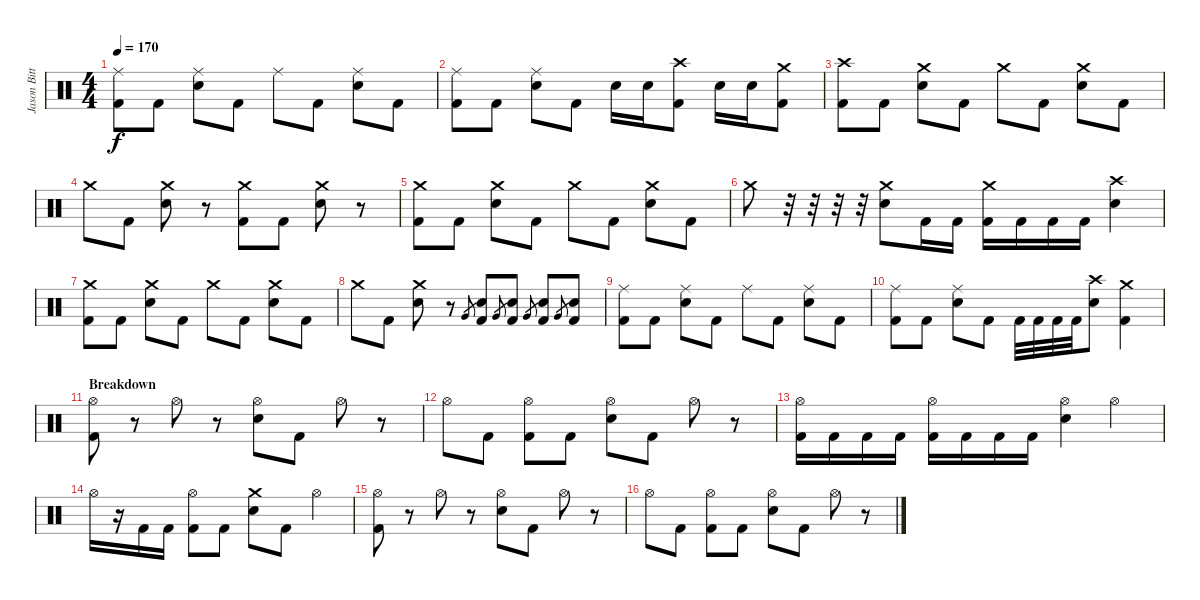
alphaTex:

\track ("Jason Bittner" "Jason Bitt") {instrument percussion}
\staff {score}
\articulation defaults
\ts (4 4)
\tempo 170
\clef neutral
\ks c
("Ride (middle)" "Kick (hit) 2").8{dy f} "Kick (hit) 2".8 ("Ride (middle)" "Electric Snare (hit)").8 "Kick (hit) 2".8 "Ride (middle)".8 "Kick (hit) 2".8 ("Ride (middle)" "Electric Snare (hit)").8 "Kick (hit) 2".8 |
("Ride (middle)" "Kick (hit) 2").8 "Kick (hit) 2".8 ("Ride (middle)" "Electric Snare (hit)").8 "Kick (hit) 2".8 "Electric Snare (hit)".16 "Electric Snare (hit)".16 ("Crash high (hit)" "Kick (hit) 2").8 "Electric Snare (hit)".16 "Electric Snare (hit)".16 ("Crash medium (hit)" "Kick (hit) 2").8 |
("Crash high (hit)" "Kick (hit) 2").8 "Kick (hit) 2".8 ("Crash medium (hit)" "Electric Snare (hit)").8 "Kick (hit) 2".8 "Crash medium (hit)".8 "Kick (hit) 2".8 ("Crash medium (hit)" "Electric Snare (hit)").8 "Kick (hit) 2".8 |
"Crash medium (hit)".8 "Kick (hit) 2".8 ("Crash medium (hit)" "Electric Snare (hit)").8 r.8 ("Crash medium (hit)" "Kick (hit) 2").8 "Kick (hit) 2".8 ("Crash medium (hit)" "Electric Snare (hit)").8 r.8 |
("Crash medium (hit)" "Kick (hit) 2").8 "Kick (hit) 2".8 ("Crash medium (hit)" "Electric Snare (hit)").8 "Kick (hit) 2".8 "Crash medium (hit)".8 "Kick (hit) 2".8 ("Crash medium (hit)" "Electric Snare (hit)").8 "Kick (hit) 2".8 |
"Crash medium (hit)".8 r.32 r.32 r.32 r.32 ("Crash medium (hit)" "Electric Snare (hit)").8 "Kick (hit) 2".16 "Kick (hit) 2".16 ("Crash medium (hit)" "Kick (hit) 2").16 "Kick (hit) 2".16 "Kick (hit) 2".16 "Kick (hit) 2".16 ("Crash high (hit)" "Electric Snare (hit)").4 |
("Crash medium (hit)" "Kick (hit) 2").8 "Kick (hit) 2".8 ("Crash medium (hit)" "Electric Snare (hit)").8 "Kick (hit) 2".8 "Crash medium (hit)".8 "Kick (hit) 2".8 ("Crash medium (hit)" "Electric Snare (hit)").8 "Kick (hit) 2".8 |
"Crash medium (hit)".8 "Kick (hit) 2".8 ("Crash medium (hit)" "Electric Snare (hit)").8 r.8 "Very Low Tom (hit)".8{gr} ("Kick (hit) 2" "Electric Snare (hit)").8 "Very Low Tom (hit)".8{gr} ("Kick (hit) 2" "Electric Snare (hit)").8 "Very Low Tom (hit)".8{gr} ("Kick (hit) 2" "Electric Snare (hit)").8 "Very Low Tom (hit)".8{gr} ("Kick (hit) 2" "Electric Snare (hit)").8 |
("Ride (middle)" "Kick (hit) 2").8 "Kick (hit) 2".8 ("Ride (middle)" "Electric Snare (hit)").8 "Kick (hit) 2".8 "Ride (middle)".8 "Kick (hit) 2".8 ("Ride (middle)" "Electric Snare (hit)").8 "Kick (hit) 2".8 |
("Ride (middle)" "Kick (hit) 2").8 "Kick (hit) 2".8 ("Ride (middle)" "Electric Snare (hit)").8 "Kick (hit) 2".8 "Kick (hit) 2".32 "Kick (hit) 2".32 "Kick (hit) 2".32 "Kick (hit) 2".32 ("Crash high (hit)" "Electric Snare (hit)").8 ("Crash medium (hit)" "Kick (hit) 2").4 |
\section ("" "Breakdown")
("Hi-Hat (open)" "Kick (hit) 2").8 r.8 "Hi-Hat (open)".8 r.8 ("Hi-Hat (open)" "Electric Snare (hit)").8 "Kick (hit) 2".8 "Hi-Hat (open)".8 r.8 |
"Hi-Hat (open)".8 "Kick (hit) 2".8 ("Hi-Hat (open)" "Kick (hit) 2").8 "Kick (hit) 2".8 ("Hi-Hat (open)" "Electric Snare (hit)").8 "Kick (hit) 2".8 "Hi-Hat (open)".8 r.8 |
("Hi-Hat (open)" "Kick (hit) 2").16 "Kick (hit) 2".16 "Kick (hit) 2".16 "Kick (hit) 2".16 ("Hi-Hat (open)" "Kick (hit) 2").16 "Kick (hit) 2".16 "Kick (hit) 2".16 "Kick (hit) 2".16 ("Hi-Hat (open)" "Electric Snare (hit)").4 "Hi-Hat (open)".4 |
"Hi-Hat (open)".16 r.16 "Kick (hit) 2".16 "Kick (hit) 2".16 ("Hi-Hat (open)" "Kick (hit) 2").8 "Kick (hit) 2".8 ("Crash medium (hit)" "Electric Snare (hit)").8 "Kick (hit) 2".8 "Hi-Hat (open)".4 |
("Hi-Hat (open)" "Kick (hit) 2").8 r.8 "Hi-Hat (open)".8 r.8 ("Hi-Hat (open)" "Electric Snare (hit)").8 "Kick (hit) 2".8 "Hi-Hat (open)".8 r.8 |
"Hi-Hat (open)".8 "Kick (hit) 2".8 ("Hi-Hat (open)" "Kick (hit) 2").8 "Kick (hit) 2".8 ("Hi-Hat (open)" "Electric Snare (hit)").8 "Kick (hit) 2".8 "Hi-Hat (open)".8 r.8
